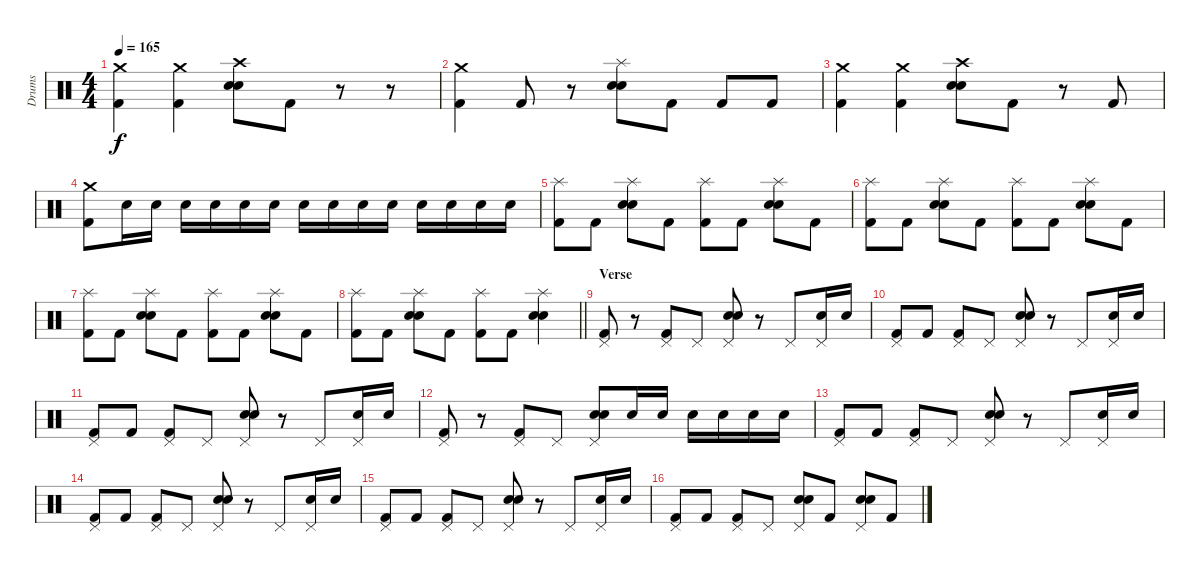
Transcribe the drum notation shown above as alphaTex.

\track ("Drums" "Drums") {instrument percussion}
\staff {score}
\articulation defaults
\ts (4 4)
\tempo 165
\clef neutral
\ks c
("Crash medium (hit)" "Kick (hit) 2").4{dy f} ("Crash medium (hit)" "Kick (hit) 2").4 ("Crash high (hit)" "Electric Snare (hit)" "Snare (hit) 2").8 "Kick (hit) 2".8 r.8 r.8 |
("Crash medium (hit)" "Kick (hit) 2").4 "Kick (hit) 2".8 r.8 ("Splash (hit)" "Electric Snare (hit)" "Snare (hit) 2").8 "Kick (hit) 2".8 "Kick (hit) 2".8 "Kick (hit) 2".8 |
("Crash medium (hit)" "Kick (hit) 2").4 ("Crash medium (hit)" "Kick (hit) 2").4 ("Crash high (hit)" "Electric Snare (hit)" "Snare (hit) 2").8 "Kick (hit) 2".8 r.8 "Kick (hit) 2".8 |
("Crash medium (hit)" "Kick (hit) 2").8 "Electric Snare (hit)".16 "Electric Snare (hit)".16 "Electric Snare (hit)".16 "Electric Snare (hit)".16 "Electric Snare (hit)".16 "Electric Snare (hit)".16 "Electric Snare (hit)".16 "Electric Snare (hit)".16 "Electric Snare (hit)".16 "Electric Snare (hit)".16 "Electric Snare (hit)".16 "Electric Snare (hit)".16 "Electric Snare (hit)".16 "Electric Snare (hit)".16 |
("Splash (hit)" "Kick (hit) 2").8 "Kick (hit) 2".8 ("Splash (hit)" "Electric Snare (hit)" "Snare (hit) 2").8 "Kick (hit) 2".8 ("Splash (hit)" "Kick (hit) 2").8 "Kick (hit) 2".8 ("Splash (hit)" "Electric Snare (hit)" "Snare (hit) 2").8 "Kick (hit) 2".8 |
("Splash (hit)" "Kick (hit) 2").8 "Kick (hit) 2".8 ("Splash (hit)" "Electric Snare (hit)" "Snare (hit) 2").8 "Kick (hit) 2".8 ("Splash (hit)" "Kick (hit) 2").8 "Kick (hit) 2".8 ("Splash (hit)" "Electric Snare (hit)" "Snare (hit) 2").8 "Kick (hit) 2".8 |
("Splash (hit)" "Kick (hit) 2").8 "Kick (hit) 2".8 ("Splash (hit)" "Electric Snare (hit)" "Snare (hit) 2").8 "Kick (hit) 2".8 ("Splash (hit)" "Kick (hit) 2").8 "Kick (hit) 2".8 ("Splash (hit)" "Electric Snare (hit)" "Snare (hit) 2").8 "Kick (hit) 2".8 |
\barLineRight lightlight
("Splash (hit)" "Kick (hit) 2").8 "Kick (hit) 2".8 ("Splash (hit)" "Electric Snare (hit)" "Snare (hit) 2").8 "Kick (hit) 2".8 ("Splash (hit)" "Kick (hit) 2").8 "Kick (hit) 2".8 ("Splash (hit)" "Electric Snare (hit)" "Snare (hit) 2").4 |
\section ("" "Verse")
("Pedal Hi-Hat (hit)" "Kick (hit) 2").8 r.8 ("Pedal Hi-Hat (hit)" "Kick (hit) 2").8 "Pedal Hi-Hat (hit)".8 ("Pedal Hi-Hat (hit)" "Electric Snare (hit)" "Snare (hit) 2").8 r.8 "Pedal Hi-Hat (hit)".8 ("Pedal Hi-Hat (hit)" "Electric Snare (hit)").16 "Electric Snare (hit)".16 |
("Pedal Hi-Hat (hit)" "Kick (hit) 2").8 "Kick (hit) 2".8 ("Pedal Hi-Hat (hit)" "Kick (hit) 2").8 "Pedal Hi-Hat (hit)".8 ("Pedal Hi-Hat (hit)" "Electric Snare (hit)" "Snare (hit) 2").8 r.8 "Pedal Hi-Hat (hit)".8 ("Pedal Hi-Hat (hit)" "Electric Snare (hit)").16 "Electric Snare (hit)".16 |
("Pedal Hi-Hat (hit)" "Kick (hit) 2").8 "Kick (hit) 2".8 ("Pedal Hi-Hat (hit)" "Kick (hit) 2").8 "Pedal Hi-Hat (hit)".8 ("Pedal Hi-Hat (hit)" "Electric Snare (hit)" "Snare (hit) 2").8 r.8 "Pedal Hi-Hat (hit)".8 ("Pedal Hi-Hat (hit)" "Electric Snare (hit)").16 "Electric Snare (hit)".16 |
("Pedal Hi-Hat (hit)" "Kick (hit) 2").8 r.8 ("Pedal Hi-Hat (hit)" "Kick (hit) 2").8 "Pedal Hi-Hat (hit)".8 ("Pedal Hi-Hat (hit)" "Electric Snare (hit)" "Snare (hit) 2").8 "Electric Snare (hit)".16 "Electric Snare (hit)".16 "Electric Snare (hit)".16 "Electric Snare (hit)".16 "Electric Snare (hit)".16 "Electric Snare (hit)".16 |
("Pedal Hi-Hat (hit)" "Kick (hit) 2").8 "Kick (hit) 2".8 ("Pedal Hi-Hat (hit)" "Kick (hit) 2").8 "Pedal Hi-Hat (hit)".8 ("Pedal Hi-Hat (hit)" "Electric Snare (hit)" "Snare (hit) 2").8 r.8 "Pedal Hi-Hat (hit)".8 ("Pedal Hi-Hat (hit)" "Electric Snare (hit)").16 "Electric Snare (hit)".16 |
("Pedal Hi-Hat (hit)" "Kick (hit) 2").8 "Kick (hit) 2".8 ("Pedal Hi-Hat (hit)" "Kick (hit) 2").8 "Pedal Hi-Hat (hit)".8 ("Pedal Hi-Hat (hit)" "Electric Snare (hit)" "Snare (hit) 2").8 r.8 "Pedal Hi-Hat (hit)".8 ("Pedal Hi-Hat (hit)" "Electric Snare (hit)").16 "Electric Snare (hit)".16 |
("Pedal Hi-Hat (hit)" "Kick (hit) 2").8 "Kick (hit) 2".8 ("Pedal Hi-Hat (hit)" "Kick (hit) 2").8 "Pedal Hi-Hat (hit)".8 ("Pedal Hi-Hat (hit)" "Electric Snare (hit)" "Snare (hit) 2").8 r.8 "Pedal Hi-Hat (hit)".8 ("Pedal Hi-Hat (hit)" "Electric Snare (hit)").16 "Electric Snare (hit)".16 |
("Pedal Hi-Hat (hit)" "Kick (hit) 2").8 "Kick (hit) 2".8 ("Pedal Hi-Hat (hit)" "Kick (hit) 2").8 "Pedal Hi-Hat (hit)".8 ("Pedal Hi-Hat (hit)" "Electric Snare (hit)" "Snare (hit) 2").8 "Kick (hit) 2".8 ("Pedal Hi-Hat (hit)" "Electric Snare (hit)" "Snare (hit) 2").8 "Kick (hit) 2".8
